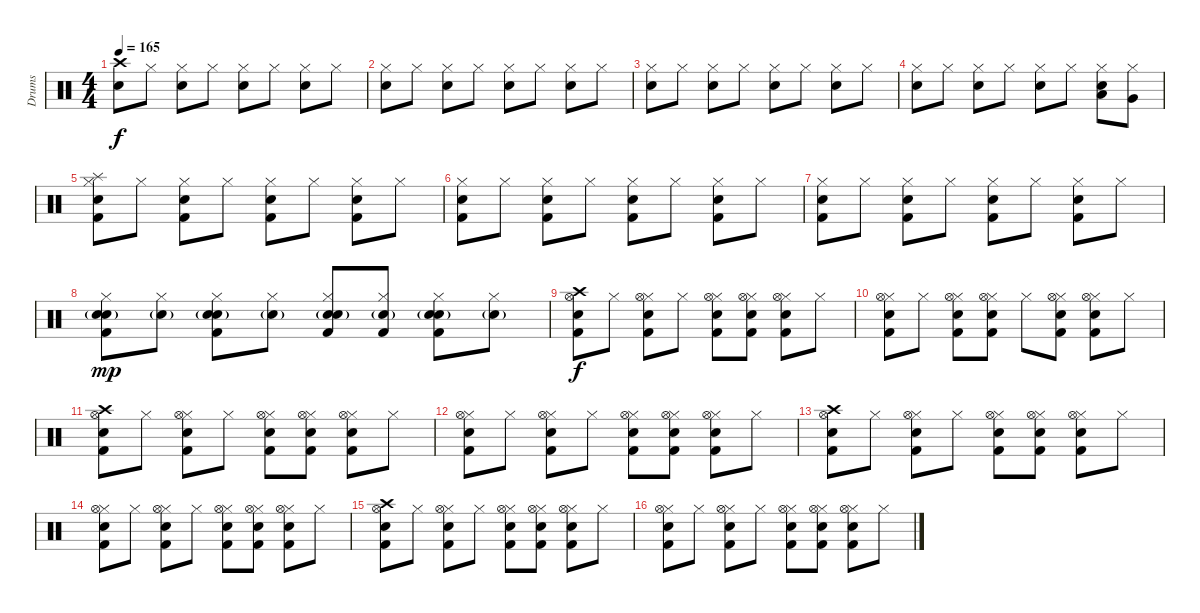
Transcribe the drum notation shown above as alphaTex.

\track ("Drums" "Drums") {instrument percussion}
\staff {score}
\articulation defaults
\ts (4 4)
\tempo 165
\clef neutral
\ks c
("Crash high (hit)" "Electric Snare (hit)").8{dy f} "Hi-Hat (closed)".8 ("Hi-Hat (closed)" "Electric Snare (hit)").8 "Hi-Hat (closed)".8 ("Hi-Hat (closed)" "Electric Snare (hit)").8 "Hi-Hat (closed)".8 ("Hi-Hat (closed)" "Electric Snare (hit)").8 "Hi-Hat (closed)".8 |
("Hi-Hat (closed)" "Electric Snare (hit)").8 "Hi-Hat (closed)".8 ("Hi-Hat (closed)" "Electric Snare (hit)").8 "Hi-Hat (closed)".8 ("Hi-Hat (closed)" "Electric Snare (hit)").8 "Hi-Hat (closed)".8 ("Hi-Hat (closed)" "Electric Snare (hit)").8 "Hi-Hat (closed)".8 |
("Hi-Hat (closed)" "Electric Snare (hit)").8 "Hi-Hat (closed)".8 ("Hi-Hat (closed)" "Electric Snare (hit)").8 "Hi-Hat (closed)".8 ("Hi-Hat (closed)" "Electric Snare (hit)").8 "Hi-Hat (closed)".8 ("Hi-Hat (closed)" "Electric Snare (hit)").8 "Hi-Hat (closed)".8 |
("Hi-Hat (closed)" "Electric Snare (hit)").8 "Hi-Hat (closed)".8 ("Hi-Hat (closed)" "Electric Snare (hit)").8 "Hi-Hat (closed)".8 ("Hi-Hat (closed)" "Electric Snare (hit)").8 "Hi-Hat (closed)".8 ("Hi-Hat (closed)" "Electric Snare (hit)" "Low Floor Tom (hit)").8 ("Hi-Hat (closed)" "Very Low Tom (hit)").8 |
("Hi-Hat (closed)" "Electric Snare (hit)" "Kick (hit) 2" "Splash (hit)").8 "Hi-Hat (closed)".8 ("Hi-Hat (closed)" "Electric Snare (hit)" "Kick (hit) 2").8 "Hi-Hat (closed)".8 ("Hi-Hat (closed)" "Electric Snare (hit)" "Kick (hit) 2").8 "Hi-Hat (closed)".8 ("Hi-Hat (closed)" "Electric Snare (hit)" "Kick (hit) 2").8 "Hi-Hat (closed)".8 |
("Hi-Hat (closed)" "Electric Snare (hit)" "Kick (hit) 2").8 "Hi-Hat (closed)".8 ("Hi-Hat (closed)" "Electric Snare (hit)" "Kick (hit) 2").8 "Hi-Hat (closed)".8 ("Hi-Hat (closed)" "Electric Snare (hit)" "Kick (hit) 2").8 "Hi-Hat (closed)".8 ("Hi-Hat (closed)" "Electric Snare (hit)" "Kick (hit) 2").8 "Hi-Hat (closed)".8 |
("Hi-Hat (closed)" "Electric Snare (hit)" "Kick (hit) 2").8 "Hi-Hat (closed)".8 ("Hi-Hat (closed)" "Electric Snare (hit)" "Kick (hit) 2").8 "Hi-Hat (closed)".8 ("Hi-Hat (closed)" "Electric Snare (hit)" "Kick (hit) 2").8 "Hi-Hat (closed)".8 ("Hi-Hat (closed)" "Electric Snare (hit)" "Kick (hit) 2").8 "Hi-Hat (closed)".8 |
("Hi-Hat (closed)" "Electric Snare (hit)" "Kick (hit) 2" "Electric Snare (hit)"{g}).8{dy mp} ("Hi-Hat (closed)" "Electric Snare (hit)"{g}).8 ("Hi-Hat (closed)" "Electric Snare (hit)" "Kick (hit) 2" "Electric Snare (hit)"{g}).8 ("Hi-Hat (closed)" "Electric Snare (hit)"{g}).8 ("Hi-Hat (closed)" "Electric Snare (hit)" "Kick (hit) 2" "Electric Snare (hit)"{g}).8 ("Hi-Hat (closed)" "Kick (hit) 2" "Electric Snare (hit)"{g}).8 ("Hi-Hat (closed)" "Electric Snare (hit)" "Kick (hit) 2" "Electric Snare (hit)"{g}).8 ("Hi-Hat (closed)" "Electric Snare (hit)"{g}).8 |
("Crash high (hit)" "Electric Snare (hit)" "Kick (hit) 2" "Hi-Hat (open)").8{dy f} "Hi-Hat (closed)".8 ("Hi-Hat (closed)" "Electric Snare (hit)" "Kick (hit) 2" "Hi-Hat (open)").8 "Hi-Hat (closed)".8 ("Hi-Hat (closed)" "Electric Snare (hit)" "Kick (hit) 2" "Hi-Hat (open)").8 ("Hi-Hat (closed)" "Electric Snare (hit)" "Kick (hit) 2" "Hi-Hat (open)").8 ("Hi-Hat (closed)" "Electric Snare (hit)" "Kick (hit) 2" "Hi-Hat (open)").8 "Hi-Hat (closed)".8 |
("Hi-Hat (closed)" "Electric Snare (hit)" "Kick (hit) 2" "Hi-Hat (open)").8 "Hi-Hat (closed)".8 ("Hi-Hat (closed)" "Electric Snare (hit)" "Kick (hit) 2" "Hi-Hat (open)").8 ("Hi-Hat (closed)" "Electric Snare (hit)" "Kick (hit) 2" "Hi-Hat (open)").8 "Hi-Hat (closed)".8 ("Hi-Hat (closed)" "Electric Snare (hit)" "Kick (hit) 2" "Hi-Hat (open)").8 ("Hi-Hat (closed)" "Electric Snare (hit)" "Kick (hit) 2" "Hi-Hat (open)").8 "Hi-Hat (closed)".8 |
("Crash high (hit)" "Electric Snare (hit)" "Kick (hit) 2" "Hi-Hat (open)").8 "Hi-Hat (closed)".8 ("Hi-Hat (closed)" "Electric Snare (hit)" "Kick (hit) 2" "Hi-Hat (open)").8 "Hi-Hat (closed)".8 ("Hi-Hat (closed)" "Electric Snare (hit)" "Kick (hit) 2" "Hi-Hat (open)").8 ("Hi-Hat (closed)" "Electric Snare (hit)" "Kick (hit) 2" "Hi-Hat (open)").8 ("Hi-Hat (closed)" "Electric Snare (hit)" "Kick (hit) 2" "Hi-Hat (open)").8 "Hi-Hat (closed)".8 |
("Hi-Hat (closed)" "Electric Snare (hit)" "Kick (hit) 2" "Hi-Hat (open)").8 "Hi-Hat (closed)".8 ("Hi-Hat (closed)" "Electric Snare (hit)" "Kick (hit) 2" "Hi-Hat (open)").8 "Hi-Hat (closed)".8 ("Hi-Hat (closed)" "Electric Snare (hit)" "Kick (hit) 2" "Hi-Hat (open)").8 ("Hi-Hat (closed)" "Electric Snare (hit)" "Kick (hit) 2" "Hi-Hat (open)").8 ("Hi-Hat (closed)" "Electric Snare (hit)" "Kick (hit) 2" "Hi-Hat (open)").8 "Hi-Hat (closed)".8 |
("Crash high (hit)" "Electric Snare (hit)" "Kick (hit) 2" "Hi-Hat (open)").8 "Hi-Hat (closed)".8 ("Hi-Hat (closed)" "Electric Snare (hit)" "Kick (hit) 2" "Hi-Hat (open)").8 "Hi-Hat (closed)".8 ("Hi-Hat (closed)" "Electric Snare (hit)" "Kick (hit) 2" "Hi-Hat (open)").8 ("Hi-Hat (closed)" "Electric Snare (hit)" "Kick (hit) 2" "Hi-Hat (open)").8 ("Hi-Hat (closed)" "Electric Snare (hit)" "Kick (hit) 2" "Hi-Hat (open)").8 "Hi-Hat (closed)".8 |
("Hi-Hat (closed)" "Electric Snare (hit)" "Kick (hit) 2" "Hi-Hat (open)").8 "Hi-Hat (closed)".8 ("Hi-Hat (closed)" "Electric Snare (hit)" "Kick (hit) 2" "Hi-Hat (open)").8 "Hi-Hat (closed)".8 ("Hi-Hat (closed)" "Electric Snare (hit)" "Kick (hit) 2" "Hi-Hat (open)").8 ("Hi-Hat (closed)" "Electric Snare (hit)" "Kick (hit) 2" "Hi-Hat (open)").8 ("Hi-Hat (closed)" "Electric Snare (hit)" "Kick (hit) 2" "Hi-Hat (open)").8 "Hi-Hat (closed)".8 |
("Crash high (hit)" "Electric Snare (hit)" "Kick (hit) 2" "Hi-Hat (open)").8 "Hi-Hat (closed)".8 ("Hi-Hat (closed)" "Electric Snare (hit)" "Kick (hit) 2" "Hi-Hat (open)").8 "Hi-Hat (closed)".8 ("Hi-Hat (closed)" "Electric Snare (hit)" "Kick (hit) 2" "Hi-Hat (open)").8 ("Hi-Hat (closed)" "Electric Snare (hit)" "Kick (hit) 2" "Hi-Hat (open)").8 ("Hi-Hat (closed)" "Electric Snare (hit)" "Kick (hit) 2" "Hi-Hat (open)").8 "Hi-Hat (closed)".8 |
("Hi-Hat (closed)" "Electric Snare (hit)" "Kick (hit) 2" "Hi-Hat (open)").8 "Hi-Hat (closed)".8 ("Hi-Hat (closed)" "Electric Snare (hit)" "Kick (hit) 2" "Hi-Hat (open)").8 "Hi-Hat (closed)".8 ("Hi-Hat (closed)" "Electric Snare (hit)" "Kick (hit) 2" "Hi-Hat (open)").8 ("Hi-Hat (closed)" "Electric Snare (hit)" "Kick (hit) 2" "Hi-Hat (open)").8 ("Hi-Hat (closed)" "Electric Snare (hit)" "Kick (hit) 2" "Hi-Hat (open)").8 "Hi-Hat (closed)".8
